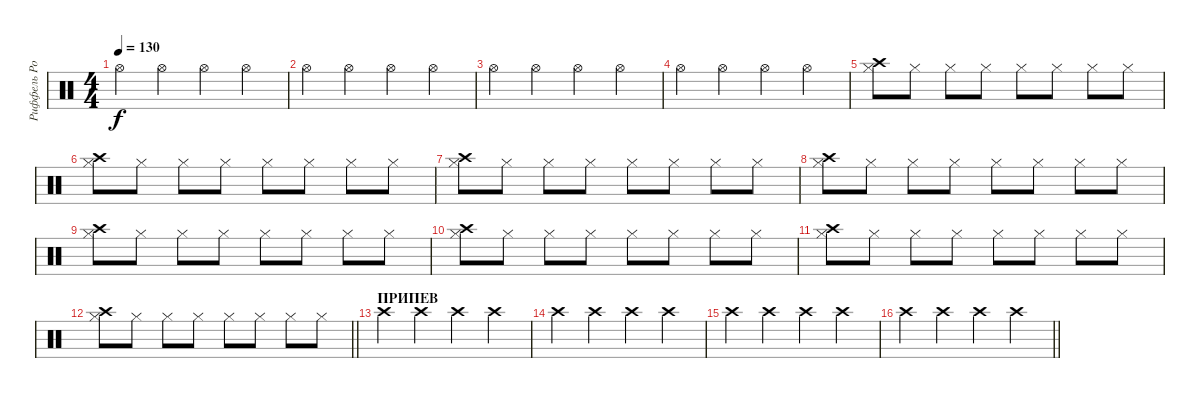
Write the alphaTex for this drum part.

\track ("Риффель Роман(хэты)" "Риффель Ро") {instrument percussion}
\staff {score}
\articulation defaults
\ts (4 4)
\tempo 130
\clef neutral
\ks c "Hi-Hat (open)".4{dy f} "Hi-Hat (open)".4 "Hi-Hat (open)".4 "Hi-Hat (open)".4
|
"Hi-Hat (open)".4 "Hi-Hat (open)".4 "Hi-Hat (open)".4 "Hi-Hat (open)".4 |
"Hi-Hat (open)".4 "Hi-Hat (open)".4 "Hi-Hat (open)".4 "Hi-Hat (open)".4 |
"Hi-Hat (open)".4 "Hi-Hat (open)".4 "Hi-Hat (open)".4 "Hi-Hat (open)".4 |
("Hi-Hat (closed)" "Crash high (hit)").8 "Hi-Hat (closed)".8 "Hi-Hat (closed)".8 "Hi-Hat (closed)".8 "Hi-Hat (closed)".8 "Hi-Hat (closed)".8 "Hi-Hat (closed)".8 "Hi-Hat (closed)".8 |
("Hi-Hat (closed)" "Crash high (hit)").8 "Hi-Hat (closed)".8 "Hi-Hat (closed)".8 "Hi-Hat (closed)".8 "Hi-Hat (closed)".8 "Hi-Hat (closed)".8 "Hi-Hat (closed)".8 "Hi-Hat (closed)".8 |
("Hi-Hat (closed)" "Crash high (hit)").8 "Hi-Hat (closed)".8 "Hi-Hat (closed)".8 "Hi-Hat (closed)".8 "Hi-Hat (closed)".8 "Hi-Hat (closed)".8 "Hi-Hat (closed)".8 "Hi-Hat (closed)".8 |
("Hi-Hat (closed)" "Crash high (hit)").8 "Hi-Hat (closed)".8 "Hi-Hat (closed)".8 "Hi-Hat (closed)".8 "Hi-Hat (closed)".8 "Hi-Hat (closed)".8 "Hi-Hat (closed)".8 "Hi-Hat (closed)".8 |
("Hi-Hat (closed)" "Crash high (hit)").8 "Hi-Hat (closed)".8 "Hi-Hat (closed)".8 "Hi-Hat (closed)".8 "Hi-Hat (closed)".8 "Hi-Hat (closed)".8 "Hi-Hat (closed)".8 "Hi-Hat (closed)".8 |
("Hi-Hat (closed)" "Crash high (hit)").8 "Hi-Hat (closed)".8 "Hi-Hat (closed)".8 "Hi-Hat (closed)".8 "Hi-Hat (closed)".8 "Hi-Hat (closed)".8 "Hi-Hat (closed)".8 "Hi-Hat (closed)".8 |
("Hi-Hat (closed)" "Crash high (hit)").8 "Hi-Hat (closed)".8 "Hi-Hat (closed)".8 "Hi-Hat (closed)".8 "Hi-Hat (closed)".8 "Hi-Hat (closed)".8 "Hi-Hat (closed)".8 "Hi-Hat (closed)".8 |
\barLineRight lightlight
("Hi-Hat (closed)" "Crash high (hit)").8 "Hi-Hat (closed)".8 "Hi-Hat (closed)".8 "Hi-Hat (closed)".8 "Hi-Hat (closed)".8 "Hi-Hat (closed)".8 "Hi-Hat (closed)".8 "Hi-Hat (closed)".8 |
\section ("" "ПРИПЕВ")
"Crash high (hit)".4 "Crash high (hit)".4 "Crash high (hit)".4 "Crash high (hit)".4 |
"Crash high (hit)".4 "Crash high (hit)".4 "Crash high (hit)".4 "Crash high (hit)".4 |
"Crash high (hit)".4 "Crash high (hit)".4 "Crash high (hit)".4 "Crash high (hit)".4 |
\barLineRight lightlight "Crash high (hit)".4 "Crash high (hit)".4 "Crash high (hit)".4 "Crash high (hit)".4
